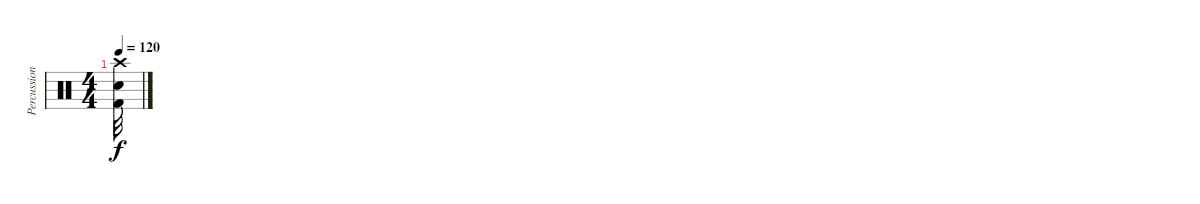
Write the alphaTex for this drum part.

\track ("Percussions" "Percussion") {instrument percussion}
\staff {score}
\articulation defaults
\ts (4 4)
\tempo 120
\clef neutral
\ks c
("Crash high (hit)" "Electric Snare (hit)" "Kick (hit) 2").32{dy f}
